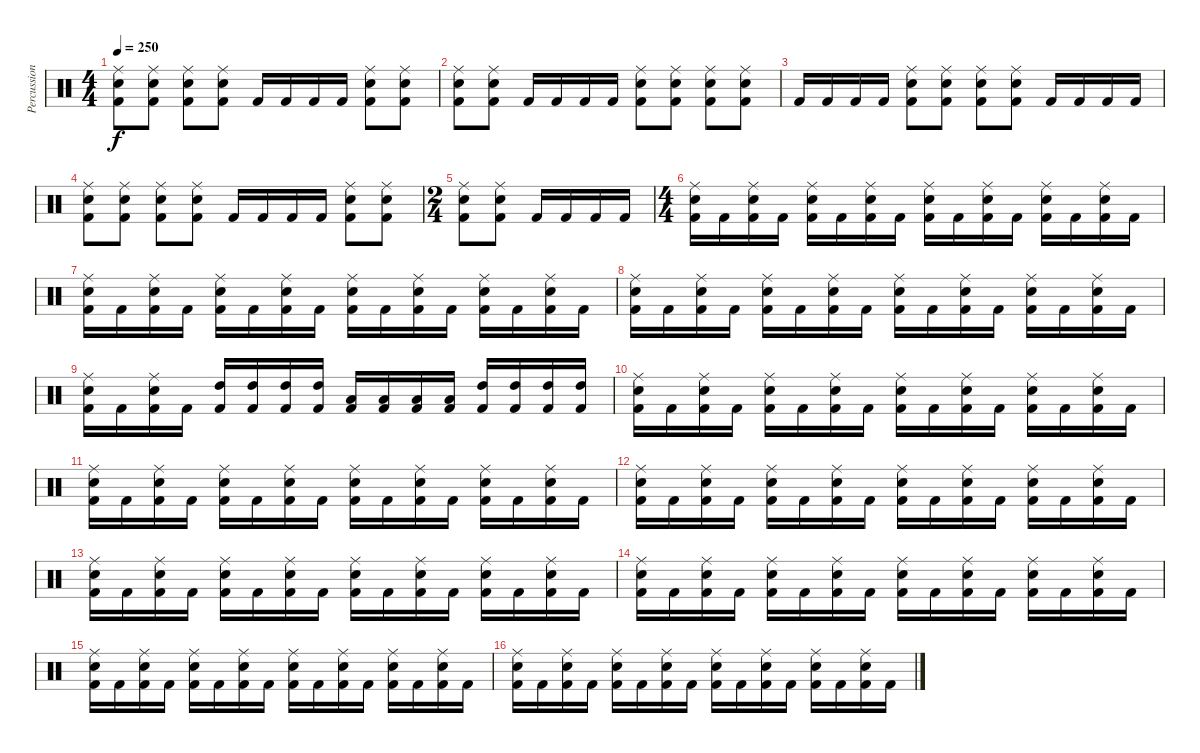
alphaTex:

\track ("Percussion" "Percussion") {instrument percussion}
\staff {score}
\articulation defaults
\ts (4 4)
\tempo 250
\clef neutral
\ks c
("Ride (middle)" "Electric Snare (hit)" "Kick (hit) 2").8{dy f} ("Ride (middle)" "Electric Snare (hit)" "Kick (hit) 2").8 ("Ride (middle)" "Electric Snare (hit)" "Kick (hit) 2").8 ("Ride (middle)" "Electric Snare (hit)" "Kick (hit) 2").8 "Kick (hit) 2".16 "Kick (hit) 2".16 "Kick (hit) 2".16 "Kick (hit) 2".16 ("Ride (middle)" "Electric Snare (hit)" "Kick (hit) 2").8 ("Ride (middle)" "Electric Snare (hit)" "Kick (hit) 2").8 |
("Ride (middle)" "Electric Snare (hit)" "Kick (hit) 2").8 ("Ride (middle)" "Electric Snare (hit)" "Kick (hit) 2").8 "Kick (hit) 2".16 "Kick (hit) 2".16 "Kick (hit) 2".16 "Kick (hit) 2".16 ("Ride (middle)" "Electric Snare (hit)" "Kick (hit) 2").8 ("Ride (middle)" "Electric Snare (hit)" "Kick (hit) 2").8 ("Ride (middle)" "Electric Snare (hit)" "Kick (hit) 2").8 ("Ride (middle)" "Electric Snare (hit)" "Kick (hit) 2").8 |
"Kick (hit) 2".16 "Kick (hit) 2".16 "Kick (hit) 2".16 "Kick (hit) 2".16 ("Ride (middle)" "Electric Snare (hit)" "Kick (hit) 2").8 ("Ride (middle)" "Electric Snare (hit)" "Kick (hit) 2").8 ("Ride (middle)" "Electric Snare (hit)" "Kick (hit) 2").8 ("Ride (middle)" "Electric Snare (hit)" "Kick (hit) 2").8 "Kick (hit) 2".16 "Kick (hit) 2".16 "Kick (hit) 2".16 "Kick (hit) 2".16 |
("Ride (middle)" "Electric Snare (hit)" "Kick (hit) 2").8 ("Ride (middle)" "Electric Snare (hit)" "Kick (hit) 2").8 ("Ride (middle)" "Electric Snare (hit)" "Kick (hit) 2").8 ("Ride (middle)" "Electric Snare (hit)" "Kick (hit) 2").8 "Kick (hit) 2".16 "Kick (hit) 2".16 "Kick (hit) 2".16 "Kick (hit) 2".16 ("Ride (middle)" "Electric Snare (hit)" "Kick (hit) 2").8 ("Ride (middle)" "Electric Snare (hit)" "Kick (hit) 2").8 |
\ts (2 4)
("Ride (middle)" "Electric Snare (hit)" "Kick (hit) 2").8 ("Ride (middle)" "Electric Snare (hit)" "Kick (hit) 2").8 "Kick (hit) 2".16 "Kick (hit) 2".16 "Kick (hit) 2".16 "Kick (hit) 2".16 |
\ts (4 4)
("Ride (middle)" "Electric Snare (hit)" "Kick (hit) 2").16 "Kick (hit) 2".16 ("Ride (middle)" "Electric Snare (hit)" "Kick (hit) 2").16 "Kick (hit) 2".16 ("Ride (middle)" "Electric Snare (hit)" "Kick (hit) 2").16 "Kick (hit) 2".16 ("Ride (middle)" "Electric Snare (hit)" "Kick (hit) 2").16 "Kick (hit) 2".16 ("Ride (middle)" "Electric Snare (hit)" "Kick (hit) 2").16 "Kick (hit) 2".16 ("Ride (middle)" "Electric Snare (hit)" "Kick (hit) 2").16 "Kick (hit) 2".16 ("Ride (middle)" "Electric Snare (hit)" "Kick (hit) 2").16 "Kick (hit) 2".16 ("Ride (middle)" "Electric Snare (hit)" "Kick (hit) 2").16 "Kick (hit) 2".16 |
("Ride (middle)" "Electric Snare (hit)" "Kick (hit) 2").16 "Kick (hit) 2".16 ("Ride (middle)" "Electric Snare (hit)" "Kick (hit) 2").16 "Kick (hit) 2".16 ("Ride (middle)" "Electric Snare (hit)" "Kick (hit) 2").16 "Kick (hit) 2".16 ("Ride (middle)" "Electric Snare (hit)" "Kick (hit) 2").16 "Kick (hit) 2".16 ("Ride (middle)" "Electric Snare (hit)" "Kick (hit) 2").16 "Kick (hit) 2".16 ("Ride (middle)" "Electric Snare (hit)" "Kick (hit) 2").16 "Kick (hit) 2".16 ("Ride (middle)" "Electric Snare (hit)" "Kick (hit) 2").16 "Kick (hit) 2".16 ("Ride (middle)" "Electric Snare (hit)" "Kick (hit) 2").16 "Kick (hit) 2".16 |
("Ride (middle)" "Electric Snare (hit)" "Kick (hit) 2").16 "Kick (hit) 2".16 ("Ride (middle)" "Electric Snare (hit)" "Kick (hit) 2").16 "Kick (hit) 2".16 ("Ride (middle)" "Electric Snare (hit)" "Kick (hit) 2").16 "Kick (hit) 2".16 ("Ride (middle)" "Electric Snare (hit)" "Kick (hit) 2").16 "Kick (hit) 2".16 ("Ride (middle)" "Electric Snare (hit)" "Kick (hit) 2").16 "Kick (hit) 2".16 ("Ride (middle)" "Electric Snare (hit)" "Kick (hit) 2").16 "Kick (hit) 2".16 ("Ride (middle)" "Electric Snare (hit)" "Kick (hit) 2").16 "Kick (hit) 2".16 ("Ride (middle)" "Electric Snare (hit)" "Kick (hit) 2").16 "Kick (hit) 2".16 |
("Ride (middle)" "Electric Snare (hit)" "Kick (hit) 2").16 "Kick (hit) 2".16 ("Ride (middle)" "Electric Snare (hit)" "Kick (hit) 2").16 "Kick (hit) 2".16 ("High Tom (hit)" "Kick (hit) 2").16 ("High Tom (hit)" "Kick (hit) 2").16 ("High Tom (hit)" "Kick (hit) 2").16 ("High Tom (hit)" "Kick (hit) 2").16 ("Low Tom (hit)" "Kick (hit) 2").16 ("Low Tom (hit)" "Kick (hit) 2").16 ("Low Tom (hit)" "Kick (hit) 2").16 ("Low Tom (hit)" "Kick (hit) 2").16 ("High Tom (hit)" "Kick (hit) 2").16 ("High Tom (hit)" "Kick (hit) 2").16 ("High Tom (hit)" "Kick (hit) 2").16 ("High Tom (hit)" "Kick (hit) 2").16 |
("Ride (middle)" "Electric Snare (hit)" "Kick (hit) 2").16 "Kick (hit) 2".16 ("Ride (middle)" "Electric Snare (hit)" "Kick (hit) 2").16 "Kick (hit) 2".16 ("Ride (middle)" "Electric Snare (hit)" "Kick (hit) 2").16 "Kick (hit) 2".16 ("Ride (middle)" "Electric Snare (hit)" "Kick (hit) 2").16 "Kick (hit) 2".16 ("Ride (middle)" "Electric Snare (hit)" "Kick (hit) 2").16 "Kick (hit) 2".16 ("Ride (middle)" "Electric Snare (hit)" "Kick (hit) 2").16 "Kick (hit) 2".16 ("Ride (middle)" "Electric Snare (hit)" "Kick (hit) 2").16 "Kick (hit) 2".16 ("Ride (middle)" "Electric Snare (hit)" "Kick (hit) 2").16 "Kick (hit) 2".16 |
("Ride (middle)" "Electric Snare (hit)" "Kick (hit) 2").16 "Kick (hit) 2".16 ("Ride (middle)" "Electric Snare (hit)" "Kick (hit) 2").16 "Kick (hit) 2".16 ("Ride (middle)" "Electric Snare (hit)" "Kick (hit) 2").16 "Kick (hit) 2".16 ("Ride (middle)" "Electric Snare (hit)" "Kick (hit) 2").16 "Kick (hit) 2".16 ("Ride (middle)" "Electric Snare (hit)" "Kick (hit) 2").16 "Kick (hit) 2".16 ("Ride (middle)" "Electric Snare (hit)" "Kick (hit) 2").16 "Kick (hit) 2".16 ("Ride (middle)" "Electric Snare (hit)" "Kick (hit) 2").16 "Kick (hit) 2".16 ("Ride (middle)" "Electric Snare (hit)" "Kick (hit) 2").16 "Kick (hit) 2".16 |
("Ride (middle)" "Electric Snare (hit)" "Kick (hit) 2").16 "Kick (hit) 2".16 ("Ride (middle)" "Electric Snare (hit)" "Kick (hit) 2").16 "Kick (hit) 2".16 ("Ride (middle)" "Electric Snare (hit)" "Kick (hit) 2").16 "Kick (hit) 2".16 ("Ride (middle)" "Electric Snare (hit)" "Kick (hit) 2").16 "Kick (hit) 2".16 ("Ride (middle)" "Electric Snare (hit)" "Kick (hit) 2").16 "Kick (hit) 2".16 ("Ride (middle)" "Electric Snare (hit)" "Kick (hit) 2").16 "Kick (hit) 2".16 ("Ride (middle)" "Electric Snare (hit)" "Kick (hit) 2").16 "Kick (hit) 2".16 ("Ride (middle)" "Electric Snare (hit)" "Kick (hit) 2").16 "Kick (hit) 2".16 |
("Ride (middle)" "Electric Snare (hit)" "Kick (hit) 2").16 "Kick (hit) 2".16 ("Ride (middle)" "Electric Snare (hit)" "Kick (hit) 2").16 "Kick (hit) 2".16 ("Ride (middle)" "Electric Snare (hit)" "Kick (hit) 2").16 "Kick (hit) 2".16 ("Ride (middle)" "Electric Snare (hit)" "Kick (hit) 2").16 "Kick (hit) 2".16 ("Ride (middle)" "Electric Snare (hit)" "Kick (hit) 2").16 "Kick (hit) 2".16 ("Ride (middle)" "Electric Snare (hit)" "Kick (hit) 2").16 "Kick (hit) 2".16 ("Ride (middle)" "Electric Snare (hit)" "Kick (hit) 2").16 "Kick (hit) 2".16 ("Ride (middle)" "Electric Snare (hit)" "Kick (hit) 2").16 "Kick (hit) 2".16 |
("Ride (middle)" "Electric Snare (hit)" "Kick (hit) 2").16 "Kick (hit) 2".16 ("Ride (middle)" "Electric Snare (hit)" "Kick (hit) 2").16 "Kick (hit) 2".16 ("Ride (middle)" "Electric Snare (hit)" "Kick (hit) 2").16 "Kick (hit) 2".16 ("Ride (middle)" "Electric Snare (hit)" "Kick (hit) 2").16 "Kick (hit) 2".16 ("Ride (middle)" "Electric Snare (hit)" "Kick (hit) 2").16 "Kick (hit) 2".16 ("Ride (middle)" "Electric Snare (hit)" "Kick (hit) 2").16 "Kick (hit) 2".16 ("Ride (middle)" "Electric Snare (hit)" "Kick (hit) 2").16 "Kick (hit) 2".16 ("Ride (middle)" "Electric Snare (hit)" "Kick (hit) 2").16 "Kick (hit) 2".16 |
("Ride (middle)" "Electric Snare (hit)" "Kick (hit) 2").16 "Kick (hit) 2".16 ("Ride (middle)" "Electric Snare (hit)" "Kick (hit) 2").16 "Kick (hit) 2".16 ("Ride (middle)" "Electric Snare (hit)" "Kick (hit) 2").16 "Kick (hit) 2".16 ("Ride (middle)" "Electric Snare (hit)" "Kick (hit) 2").16 "Kick (hit) 2".16 ("Ride (middle)" "Electric Snare (hit)" "Kick (hit) 2").16 "Kick (hit) 2".16 ("Ride (middle)" "Electric Snare (hit)" "Kick (hit) 2").16 "Kick (hit) 2".16 ("Ride (middle)" "Electric Snare (hit)" "Kick (hit) 2").16 "Kick (hit) 2".16 ("Ride (middle)" "Electric Snare (hit)" "Kick (hit) 2").16 "Kick (hit) 2".16 |
("Ride (middle)" "Electric Snare (hit)" "Kick (hit) 2").16 "Kick (hit) 2".16 ("Ride (middle)" "Electric Snare (hit)" "Kick (hit) 2").16 "Kick (hit) 2".16 ("Ride (middle)" "Electric Snare (hit)" "Kick (hit) 2").16 "Kick (hit) 2".16 ("Ride (middle)" "Electric Snare (hit)" "Kick (hit) 2").16 "Kick (hit) 2".16 ("Ride (middle)" "Electric Snare (hit)" "Kick (hit) 2").16 "Kick (hit) 2".16 ("Ride (middle)" "Electric Snare (hit)" "Kick (hit) 2").16 "Kick (hit) 2".16 ("Ride (middle)" "Electric Snare (hit)" "Kick (hit) 2").16 "Kick (hit) 2".16 ("Ride (middle)" "Electric Snare (hit)" "Kick (hit) 2").16 "Kick (hit) 2".16
